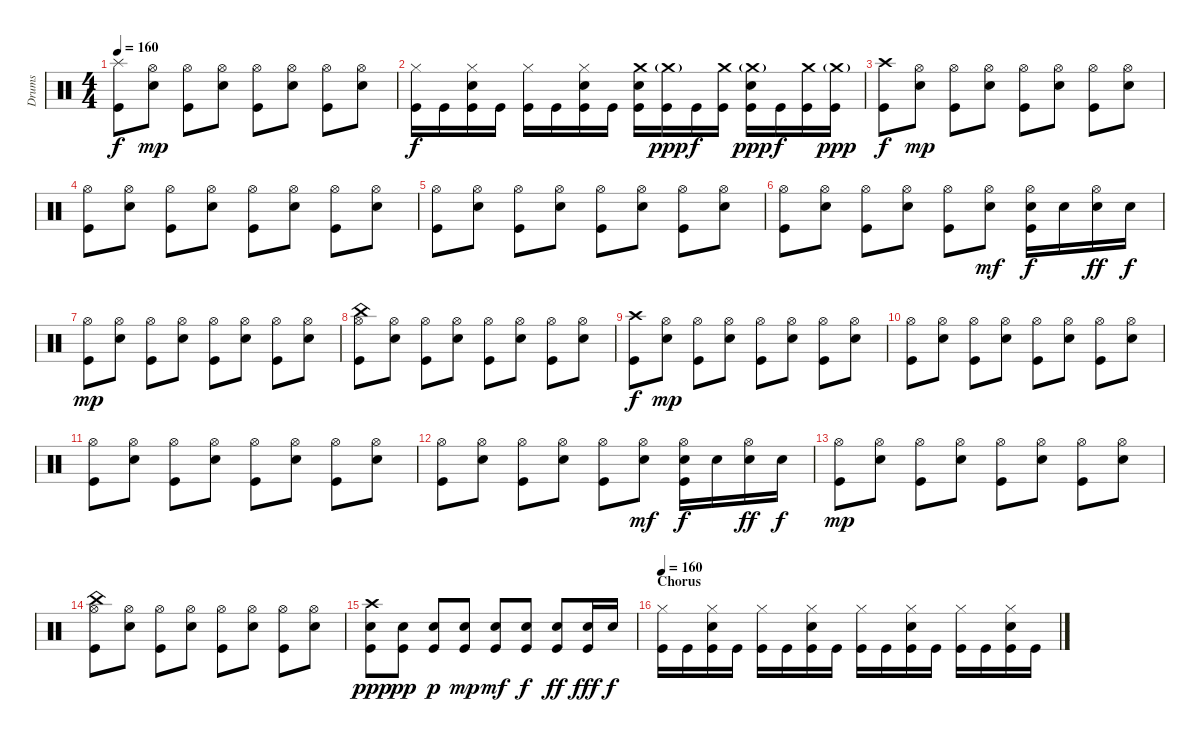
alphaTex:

\track ("Drums" "Drums") {instrument percussion}
\staff {score}
\articulation defaults
\ts (4 4)
\tempo 160
\clef neutral
\ks c
("Splash (hit)" "Kick (hit)").8{dy f} ("Hi-Hat (open)" "Electric Snare (hit)").8{dy mp} ("Hi-Hat (open)" "Kick (hit)").8 ("Hi-Hat (open)" "Electric Snare (hit)").8 ("Hi-Hat (open)" "Kick (hit)").8 ("Hi-Hat (open)" "Electric Snare (hit)").8 ("Hi-Hat (open)" "Kick (hit)").8 ("Hi-Hat (open)" "Electric Snare (hit)").8 |
("Hi-Hat (closed)" "Kick (hit)").16{dy f} "Kick (hit)".16 ("Hi-Hat (closed)" "Electric Snare (hit)" "Kick (hit)").16 "Kick (hit)".16 ("Hi-Hat (closed)" "Kick (hit)").16 "Kick (hit)".16 ("Hi-Hat (closed)" "Electric Snare (hit)" "Kick (hit)").16 "Kick (hit)".16 ("Crash medium (hit)" "Electric Snare (hit)" "Kick (hit)").16 ("Crash medium (hit)"{g} "Kick (hit)").16{dy ppp} "Kick (hit)".16{dy f} ("Crash medium (hit)" "Kick (hit)").16 ("Crash medium (hit)"{g} "Electric Snare (hit)" "Kick (hit)").16{dy ppp} "Kick (hit)".16{dy f} ("Crash medium (hit)" "Kick (hit)").16 ("Crash medium (hit)"{g} "Kick (hit)").16{dy ppp} |
("Crash high (hit)" "Kick (hit)").8{dy f} ("Hi-Hat (open)" "Electric Snare (hit)").8{dy mp} ("Hi-Hat (open)" "Kick (hit)").8 ("Hi-Hat (open)" "Electric Snare (hit)").8 ("Hi-Hat (open)" "Kick (hit)").8 ("Hi-Hat (open)" "Electric Snare (hit)").8 ("Hi-Hat (open)" "Kick (hit)").8 ("Hi-Hat (open)" "Electric Snare (hit)").8 |
("Hi-Hat (open)" "Kick (hit)").8 ("Hi-Hat (open)" "Electric Snare (hit)").8 ("Hi-Hat (open)" "Kick (hit)").8 ("Hi-Hat (open)" "Electric Snare (hit)").8 ("Hi-Hat (open)" "Kick (hit)").8 ("Hi-Hat (open)" "Electric Snare (hit)").8 ("Hi-Hat (open)" "Kick (hit)").8 ("Hi-Hat (open)" "Electric Snare (hit)").8 |
("Hi-Hat (open)" "Kick (hit)").8 ("Hi-Hat (open)" "Electric Snare (hit)").8 ("Hi-Hat (open)" "Kick (hit)").8 ("Hi-Hat (open)" "Electric Snare (hit)").8 ("Hi-Hat (open)" "Kick (hit)").8 ("Hi-Hat (open)" "Electric Snare (hit)").8 ("Hi-Hat (open)" "Kick (hit)").8 ("Hi-Hat (open)" "Electric Snare (hit)").8 |
("Hi-Hat (open)" "Kick (hit)").8 ("Hi-Hat (open)" "Electric Snare (hit)").8 ("Hi-Hat (open)" "Kick (hit)").8 ("Hi-Hat (open)" "Electric Snare (hit)").8 ("Hi-Hat (open)" "Kick (hit)").8 ("Hi-Hat (open)" "Electric Snare (hit)").8{dy mf} ("Hi-Hat (open)" "Electric Snare (hit)" "Kick (hit)").16{dy f} "Electric Snare (hit)".16 ("Hi-Hat (open)" "Electric Snare (hit)").16{dy ff} "Electric Snare (hit)".16{dy f} |
("Hi-Hat (open)" "Kick (hit)").8{dy mp} ("Hi-Hat (open)" "Electric Snare (hit)").8 ("Hi-Hat (open)" "Kick (hit)").8 ("Hi-Hat (open)" "Electric Snare (hit)").8 ("Hi-Hat (open)" "Kick (hit)").8 ("Hi-Hat (open)" "Electric Snare (hit)").8 ("Hi-Hat (open)" "Kick (hit)").8 ("Hi-Hat (open)" "Electric Snare (hit)").8 |
("China (hit)" "Hi-Hat (open)" "Kick (hit)").8 ("Hi-Hat (open)" "Electric Snare (hit)").8 ("Hi-Hat (open)" "Kick (hit)").8 ("Hi-Hat (open)" "Electric Snare (hit)").8 ("Hi-Hat (open)" "Kick (hit)").8 ("Hi-Hat (open)" "Electric Snare (hit)").8 ("Hi-Hat (open)" "Kick (hit)").8 ("Hi-Hat (open)" "Electric Snare (hit)").8 |
("Crash high (hit)" "Kick (hit)").8{dy f} ("Hi-Hat (open)" "Electric Snare (hit)").8{dy mp} ("Hi-Hat (open)" "Kick (hit)").8 ("Hi-Hat (open)" "Electric Snare (hit)").8 ("Hi-Hat (open)" "Kick (hit)").8 ("Hi-Hat (open)" "Electric Snare (hit)").8 ("Hi-Hat (open)" "Kick (hit)").8 ("Hi-Hat (open)" "Electric Snare (hit)").8 |
("Hi-Hat (open)" "Kick (hit)").8 ("Hi-Hat (open)" "Electric Snare (hit)").8 ("Hi-Hat (open)" "Kick (hit)").8 ("Hi-Hat (open)" "Electric Snare (hit)").8 ("Hi-Hat (open)" "Kick (hit)").8 ("Hi-Hat (open)" "Electric Snare (hit)").8 ("Hi-Hat (open)" "Kick (hit)").8 ("Hi-Hat (open)" "Electric Snare (hit)").8 |
("Hi-Hat (open)" "Kick (hit)").8 ("Hi-Hat (open)" "Electric Snare (hit)").8 ("Hi-Hat (open)" "Kick (hit)").8 ("Hi-Hat (open)" "Electric Snare (hit)").8 ("Hi-Hat (open)" "Kick (hit)").8 ("Hi-Hat (open)" "Electric Snare (hit)").8 ("Hi-Hat (open)" "Kick (hit)").8 ("Hi-Hat (open)" "Electric Snare (hit)").8 |
("Hi-Hat (open)" "Kick (hit)").8 ("Hi-Hat (open)" "Electric Snare (hit)").8 ("Hi-Hat (open)" "Kick (hit)").8 ("Hi-Hat (open)" "Electric Snare (hit)").8 ("Hi-Hat (open)" "Kick (hit)").8 ("Hi-Hat (open)" "Electric Snare (hit)").8{dy mf} ("Hi-Hat (open)" "Electric Snare (hit)" "Kick (hit)").16{dy f} "Electric Snare (hit)".16 ("Hi-Hat (open)" "Electric Snare (hit)").16{dy ff} "Electric Snare (hit)".16{dy f} |
("Hi-Hat (open)" "Kick (hit)").8{dy mp} ("Hi-Hat (open)" "Electric Snare (hit)").8 ("Hi-Hat (open)" "Kick (hit)").8 ("Hi-Hat (open)" "Electric Snare (hit)").8 ("Hi-Hat (open)" "Kick (hit)").8 ("Hi-Hat (open)" "Electric Snare (hit)").8 ("Hi-Hat (open)" "Kick (hit)").8 ("Hi-Hat (open)" "Electric Snare (hit)").8 |
("China (hit)" "Hi-Hat (open)" "Kick (hit)").8 ("Hi-Hat (open)" "Electric Snare (hit)").8 ("Hi-Hat (open)" "Kick (hit)").8 ("Hi-Hat (open)" "Electric Snare (hit)").8 ("Hi-Hat (open)" "Kick (hit)").8 ("Hi-Hat (open)" "Electric Snare (hit)").8 ("Hi-Hat (open)" "Kick (hit)").8 ("Hi-Hat (open)" "Electric Snare (hit)").8 |
("Crash high (hit)" "Electric Snare (hit)" "Kick (hit)").8{dy ppp} ("Electric Snare (hit)" "Kick (hit)").8{dy pp} ("Electric Snare (hit)" "Kick (hit)").8{dy p} ("Electric Snare (hit)" "Kick (hit)").8{dy mp} ("Electric Snare (hit)" "Kick (hit)").8{dy mf} ("Electric Snare (hit)" "Kick (hit)").8{dy f} ("Electric Snare (hit)" "Kick (hit)").8{dy ff} ("Electric Snare (hit)" "Kick (hit)").16{dy fff} "Electric Snare (hit)".16{dy f} |
\section ("" "Chorus")
\tempo 160
("Hi-Hat (closed)" "Kick (hit)").16 "Kick (hit)".16 ("Hi-Hat (closed)" "Electric Snare (hit)" "Kick (hit)").16 "Kick (hit)".16 ("Hi-Hat (closed)" "Kick (hit)").16 "Kick (hit)".16 ("Hi-Hat (closed)" "Electric Snare (hit)" "Kick (hit)").16 "Kick (hit)".16 ("Hi-Hat (closed)" "Kick (hit)").16 "Kick (hit)".16 ("Hi-Hat (closed)" "Electric Snare (hit)" "Kick (hit)").16 "Kick (hit)".16 ("Hi-Hat (closed)" "Kick (hit)").16 "Kick (hit)".16 ("Hi-Hat (closed)" "Electric Snare (hit)" "Kick (hit)").16 "Kick (hit)".16
